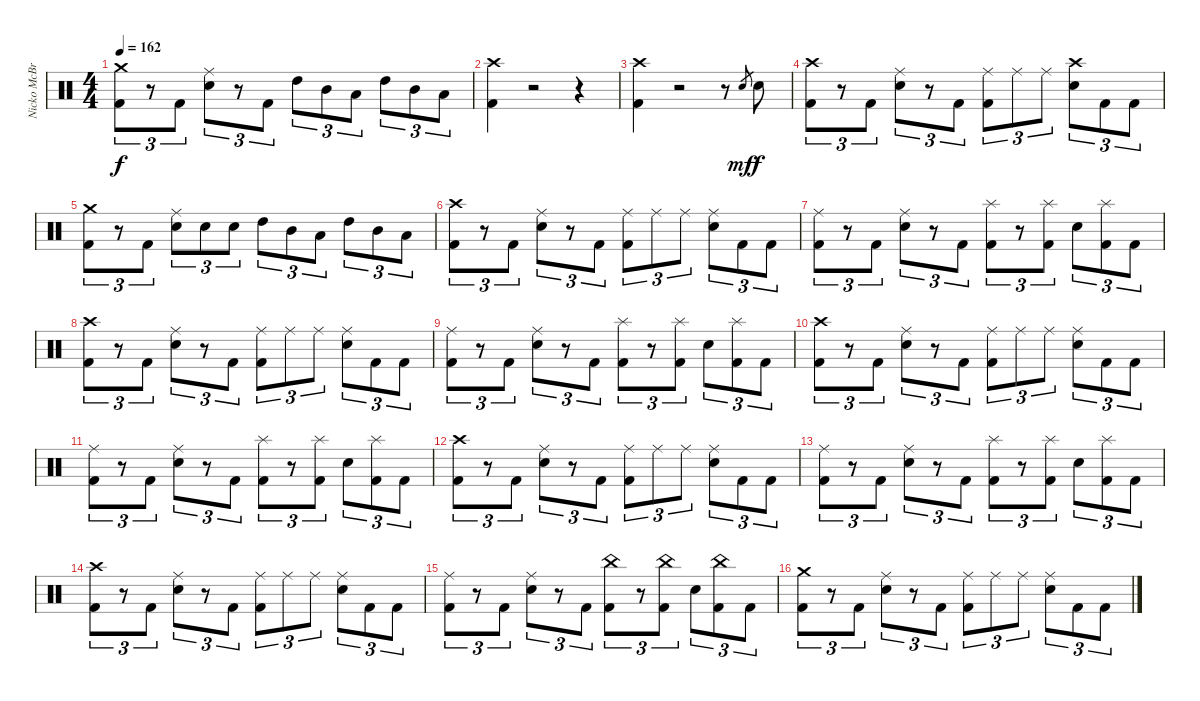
\track ("Nicko McBrain" "Nicko McBr") {instrument percussion}
\staff {score}
\articulation defaults
\ts (4 4)
\tempo 162
\clef neutral
\ks c
("Crash medium (hit)" "Kick (hit) 2").8{tu (3 2) dy f} r.8{tu (3 2)} "Kick (hit) 2".8{tu (3 2)} ("Ride (middle)" "Electric Snare (hit)").8{tu (3 2)} r.8{tu (3 2)} "Kick (hit) 2".8{tu (3 2)} "High Tom (hit)".8{tu (3 2)} "Mid Tom (hit)".8{tu (3 2)} "Low Tom (hit)".8{tu (3 2)} "High Tom (hit)".8{tu (3 2)} "Mid Tom (hit)".8{tu (3 2)} "Low Tom (hit)".8{tu (3 2)} |
("Crash high (hit)" "Kick (hit) 2").4 r.2 r.4 |
("Crash high (hit)" "Kick (hit) 2").4 r.2 r.8 "Electric Snare (hit)".8{gr dy mf} "Electric Snare (hit)".8{dy f} |
("Crash high (hit)" "Kick (hit) 2").8{tu (3 2)} r.8{tu (3 2)} "Kick (hit) 2".8{tu (3 2)} ("Ride (middle)" "Electric Snare (hit)").8{tu (3 2)} r.8{tu (3 2)} "Kick (hit) 2".8{tu (3 2)} ("Ride (middle)" "Kick (hit) 2").8{tu (3 2)} "Ride (middle)".8{tu (3 2)} "Ride (middle)".8{tu (3 2)} ("Crash high (hit)" "Electric Snare (hit)").8{tu (3 2)} "Kick (hit) 2".8{tu (3 2)} "Kick (hit) 2".8{tu (3 2)} |
("Crash medium (hit)" "Kick (hit) 2").8{tu (3 2)} r.8{tu (3 2)} "Kick (hit) 2".8{tu (3 2)} ("Ride (middle)" "Electric Snare (hit)").8{tu (3 2)} "Electric Snare (hit)".8{tu (3 2)} "Electric Snare (hit)".8{tu (3 2)} "High Tom (hit)".8{tu (3 2)} "Mid Tom (hit)".8{tu (3 2)} "Low Tom (hit)".8{tu (3 2)} "High Tom (hit)".8{tu (3 2)} "Mid Tom (hit)".8{tu (3 2)} "Low Tom (hit)".8{tu (3 2)} |
("Crash high (hit)" "Kick (hit) 2").8{tu (3 2)} r.8{tu (3 2)} "Kick (hit) 2".8{tu (3 2)} ("Ride (middle)" "Electric Snare (hit)").8{tu (3 2)} r.8{tu (3 2)} "Kick (hit) 2".8{tu (3 2)} ("Ride (middle)" "Kick (hit) 2").8{tu (3 2)} "Ride (middle)".8{tu (3 2)} "Ride (middle)".8{tu (3 2)} ("Ride (middle)" "Electric Snare (hit)").8{tu (3 2)} "Kick (hit) 2".8{tu (3 2)} "Kick (hit) 2".8{tu (3 2)} |
("Ride (middle)" "Kick (hit) 2").8{tu (3 2)} r.8{tu (3 2)} "Kick (hit) 2".8{tu (3 2)} ("Ride (middle)" "Electric Snare (hit)").8{tu (3 2)} r.8{tu (3 2)} "Kick (hit) 2".8{tu (3 2)} ("Splash (hit)" "Kick (hit) 2").8{tu (3 2)} r.8{tu (3 2)} ("Splash (hit)" "Kick (hit) 2").8{tu (3 2)} "Electric Snare (hit)".8{tu (3 2)} ("Splash (hit)" "Kick (hit) 2").8{tu (3 2)} "Kick (hit) 2".8{tu (3 2)} |
("Crash high (hit)" "Kick (hit) 2").8{tu (3 2)} r.8{tu (3 2)} "Kick (hit) 2".8{tu (3 2)} ("Ride (middle)" "Electric Snare (hit)").8{tu (3 2)} r.8{tu (3 2)} "Kick (hit) 2".8{tu (3 2)} ("Ride (middle)" "Kick (hit) 2").8{tu (3 2)} "Ride (middle)".8{tu (3 2)} "Ride (middle)".8{tu (3 2)} ("Ride (middle)" "Electric Snare (hit)").8{tu (3 2)} "Kick (hit) 2".8{tu (3 2)} "Kick (hit) 2".8{tu (3 2)} |
("Ride (middle)" "Kick (hit) 2").8{tu (3 2)} r.8{tu (3 2)} "Kick (hit) 2".8{tu (3 2)} ("Ride (middle)" "Electric Snare (hit)").8{tu (3 2)} r.8{tu (3 2)} "Kick (hit) 2".8{tu (3 2)} ("Splash (hit)" "Kick (hit) 2").8{tu (3 2)} r.8{tu (3 2)} ("Splash (hit)" "Kick (hit) 2").8{tu (3 2)} "Electric Snare (hit)".8{tu (3 2)} ("Splash (hit)" "Kick (hit) 2").8{tu (3 2)} "Kick (hit) 2".8{tu (3 2)} |
("Crash high (hit)" "Kick (hit) 2").8{tu (3 2)} r.8{tu (3 2)} "Kick (hit) 2".8{tu (3 2)} ("Ride (middle)" "Electric Snare (hit)").8{tu (3 2)} r.8{tu (3 2)} "Kick (hit) 2".8{tu (3 2)} ("Ride (middle)" "Kick (hit) 2").8{tu (3 2)} "Ride (middle)".8{tu (3 2)} "Ride (middle)".8{tu (3 2)} ("Ride (middle)" "Electric Snare (hit)").8{tu (3 2)} "Kick (hit) 2".8{tu (3 2)} "Kick (hit) 2".8{tu (3 2)} |
("Ride (middle)" "Kick (hit) 2").8{tu (3 2)} r.8{tu (3 2)} "Kick (hit) 2".8{tu (3 2)} ("Ride (middle)" "Electric Snare (hit)").8{tu (3 2)} r.8{tu (3 2)} "Kick (hit) 2".8{tu (3 2)} ("Splash (hit)" "Kick (hit) 2").8{tu (3 2)} r.8{tu (3 2)} ("Splash (hit)" "Kick (hit) 2").8{tu (3 2)} "Electric Snare (hit)".8{tu (3 2)} ("Splash (hit)" "Kick (hit) 2").8{tu (3 2)} "Kick (hit) 2".8{tu (3 2)} |
("Crash high (hit)" "Kick (hit) 2").8{tu (3 2)} r.8{tu (3 2)} "Kick (hit) 2".8{tu (3 2)} ("Ride (middle)" "Electric Snare (hit)").8{tu (3 2)} r.8{tu (3 2)} "Kick (hit) 2".8{tu (3 2)} ("Ride (middle)" "Kick (hit) 2").8{tu (3 2)} "Ride (middle)".8{tu (3 2)} "Ride (middle)".8{tu (3 2)} ("Ride (middle)" "Electric Snare (hit)").8{tu (3 2)} "Kick (hit) 2".8{tu (3 2)} "Kick (hit) 2".8{tu (3 2)} |
("Ride (middle)" "Kick (hit) 2").8{tu (3 2)} r.8{tu (3 2)} "Kick (hit) 2".8{tu (3 2)} ("Ride (middle)" "Electric Snare (hit)").8{tu (3 2)} r.8{tu (3 2)} "Kick (hit) 2".8{tu (3 2)} ("Splash (hit)" "Kick (hit) 2").8{tu (3 2)} r.8{tu (3 2)} ("Splash (hit)" "Kick (hit) 2").8{tu (3 2)} "Electric Snare (hit)".8{tu (3 2)} ("Splash (hit)" "Kick (hit) 2").8{tu (3 2)} "Kick (hit) 2".8{tu (3 2)} |
("Crash high (hit)" "Kick (hit) 2").8{tu (3 2)} r.8{tu (3 2)} "Kick (hit) 2".8{tu (3 2)} ("Ride (middle)" "Electric Snare (hit)").8{tu (3 2)} r.8{tu (3 2)} "Kick (hit) 2".8{tu (3 2)} ("Ride (middle)" "Kick (hit) 2").8{tu (3 2)} "Ride (middle)".8{tu (3 2)} "Ride (middle)".8{tu (3 2)} ("Ride (middle)" "Electric Snare (hit)").8{tu (3 2)} "Kick (hit) 2".8{tu (3 2)} "Kick (hit) 2".8{tu (3 2)} |
("Ride (middle)" "Kick (hit) 2").8{tu (3 2)} r.8{tu (3 2)} "Kick (hit) 2".8{tu (3 2)} ("Ride (middle)" "Electric Snare (hit)").8{tu (3 2)} r.8{tu (3 2)} "Kick (hit) 2".8{tu (3 2)} ("China (hit)" "Kick (hit) 2").8{tu (3 2)} r.8{tu (3 2)} ("China (hit)" "Kick (hit) 2").8{tu (3 2)} "Electric Snare (hit)".8{tu (3 2)} ("China (hit)" "Kick (hit) 2").8{tu (3 2)} "Kick (hit) 2".8{tu (3 2)} |
("Crash medium (hit)" "Kick (hit) 2").8{tu (3 2)} r.8{tu (3 2)} "Kick (hit) 2".8{tu (3 2)} ("Ride (middle)" "Electric Snare (hit)").8{tu (3 2)} r.8{tu (3 2)} "Kick (hit) 2".8{tu (3 2)} ("Ride (middle)" "Kick (hit) 2").8{tu (3 2)} "Ride (middle)".8{tu (3 2)} "Ride (middle)".8{tu (3 2)} ("Ride (middle)" "Electric Snare (hit)").8{tu (3 2)} "Kick (hit) 2".8{tu (3 2)} "Kick (hit) 2".8{tu (3 2)}
